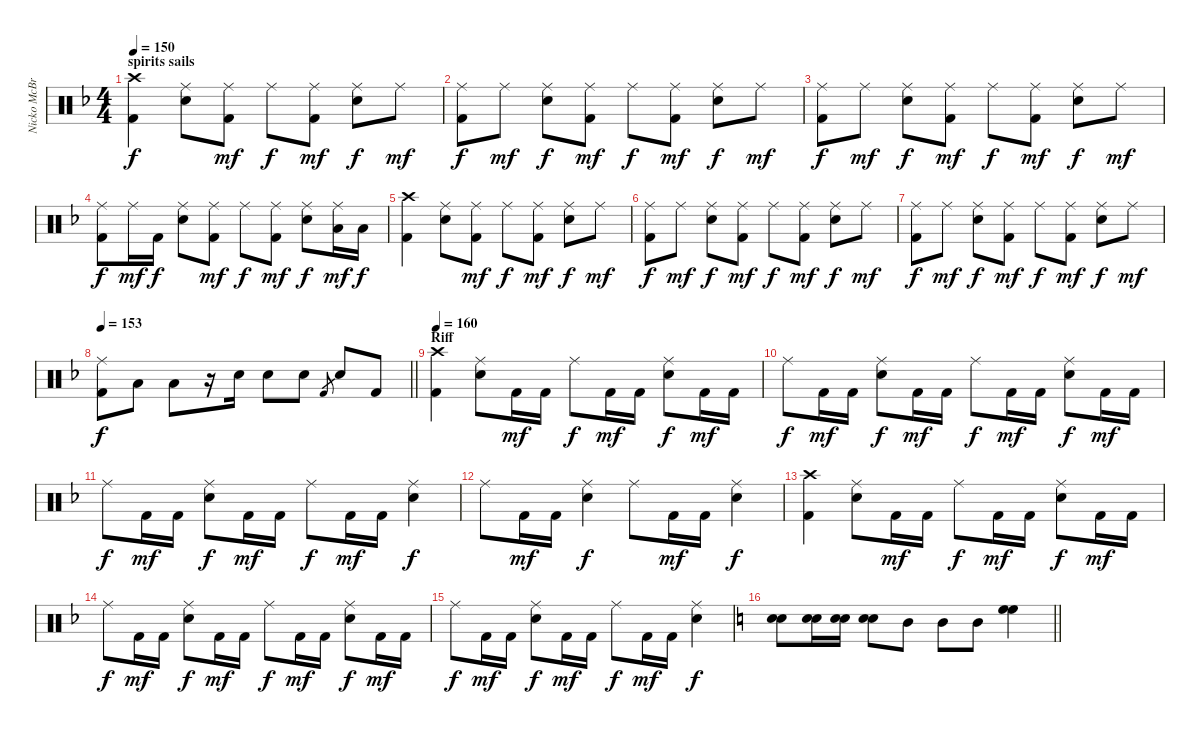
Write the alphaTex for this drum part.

\track ("Nicko McBrain" "Nicko McBr") {instrument percussion}
\staff {score}
\articulation defaults
\ts (4 4)
\section ("" "spirits sails")
\tempo 150
\clef neutral
\ks f
("Crash high (hit)" "Kick (hit) 2").4{dy f} ("Ride (middle)" "Electric Snare (hit)").8 ("Ride (middle)" "Kick (hit) 2").8{dy mf} "Ride (middle)".8{dy f} ("Ride (middle)" "Kick (hit) 2").8{dy mf} ("Ride (middle)" "Electric Snare (hit)").8{dy f} "Ride (middle)".8{dy mf} |
("Ride (middle)" "Kick (hit) 2").8{dy f} "Ride (middle)".8{dy mf} ("Ride (middle)" "Electric Snare (hit)").8{dy f} ("Ride (middle)" "Kick (hit) 2").8{dy mf} "Ride (middle)".8{dy f} ("Ride (middle)" "Kick (hit) 2").8{dy mf} ("Ride (middle)" "Electric Snare (hit)").8{dy f} "Ride (middle)".8{dy mf} |
("Ride (middle)" "Kick (hit) 2").8{dy f} "Ride (middle)".8{dy mf} ("Ride (middle)" "Electric Snare (hit)").8{dy f} ("Ride (middle)" "Kick (hit) 2").8{dy mf} "Ride (middle)".8{dy f} ("Ride (middle)" "Kick (hit) 2").8{dy mf} ("Ride (middle)" "Electric Snare (hit)").8{dy f} "Ride (middle)".8{dy mf} |
("Ride (middle)" "Kick (hit) 2").8{dy f} "Ride (middle)".16{dy mf} "Kick (hit) 2".16{dy f} ("Ride (middle)" "Electric Snare (hit)").8 ("Ride (middle)" "Kick (hit) 2").8{dy mf} "Ride (middle)".8{dy f} ("Ride (middle)" "Kick (hit) 2").8{dy mf} ("Ride (middle)" "Electric Snare (hit)").8{dy f} ("Ride (middle)" "Low Tom (hit)").16{dy mf} "Low Tom (hit)".16{dy f} |
("Crash high (hit)" "Kick (hit) 2").4 ("Ride (middle)" "Electric Snare (hit)").8 ("Ride (middle)" "Kick (hit) 2").8{dy mf} "Ride (middle)".8{dy f} ("Ride (middle)" "Kick (hit) 2").8{dy mf} ("Ride (middle)" "Electric Snare (hit)").8{dy f} "Ride (middle)".8{dy mf} |
("Ride (middle)" "Kick (hit) 2").8{dy f} "Ride (middle)".8{dy mf} ("Ride (middle)" "Electric Snare (hit)").8{dy f} ("Ride (middle)" "Kick (hit) 2").8{dy mf} "Ride (middle)".8{dy f} ("Ride (middle)" "Kick (hit) 2").8{dy mf} ("Ride (middle)" "Electric Snare (hit)").8{dy f} "Ride (middle)".8{dy mf} |
("Ride (middle)" "Kick (hit) 2").8{dy f} "Ride (middle)".8{dy mf} ("Ride (middle)" "Electric Snare (hit)").8{dy f} ("Ride (middle)" "Kick (hit) 2").8{dy mf} "Ride (middle)".8{dy f} ("Ride (middle)" "Kick (hit) 2").8{dy mf} ("Ride (middle)" "Electric Snare (hit)").8{dy f} "Ride (middle)".8{dy mf} |
\tempo 153
\barLineRight lightlight
("Ride (middle)" "Kick (hit) 2").8{dy f} "Low Tom (hit)".8 "Low Tom (hit)".8 r.16 "Electric Snare (hit)".16 "Electric Snare (hit)".8 "Electric Snare (hit)".8 "Kick (hit) 2".8{gr} "Electric Snare (hit)".8 "Kick (hit) 2".8 |
\section ("" "Riff")
\tempo 160
("Crash high (hit)" "Kick (hit) 2").4 ("Ride (middle)" "Electric Snare (hit)").8 "Kick (hit) 2".16{dy mf} "Kick (hit) 2".16 "Ride (middle)".8{dy f} "Kick (hit) 2".16{dy mf} "Kick (hit) 2".16 ("Ride (middle)" "Electric Snare (hit)").8{dy f} "Kick (hit) 2".16{dy mf} "Kick (hit) 2".16 |
"Ride (middle)".8{dy f} "Kick (hit) 2".16{dy mf} "Kick (hit) 2".16 ("Ride (middle)" "Electric Snare (hit)").8{dy f} "Kick (hit) 2".16{dy mf} "Kick (hit) 2".16 "Ride (middle)".8{dy f} "Kick (hit) 2".16{dy mf} "Kick (hit) 2".16 ("Ride (middle)" "Electric Snare (hit)").8{dy f} "Kick (hit) 2".16{dy mf} "Kick (hit) 2".16 |
"Ride (middle)".8{dy f} "Kick (hit) 2".16{dy mf} "Kick (hit) 2".16 ("Ride (middle)" "Electric Snare (hit)").8{dy f} "Kick (hit) 2".16{dy mf} "Kick (hit) 2".16 "Ride (middle)".8{dy f} "Kick (hit) 2".16{dy mf} "Kick (hit) 2".16 ("Ride (middle)" "Electric Snare (hit)").4{dy f} |
"Ride (middle)".8 "Kick (hit) 2".16{dy mf} "Kick (hit) 2".16 ("Ride (middle)" "Electric Snare (hit)").4{dy f} "Ride (middle)".8 "Kick (hit) 2".16{dy mf} "Kick (hit) 2".16 ("Ride (middle)" "Electric Snare (hit)").4{dy f} |
("Crash high (hit)" "Kick (hit) 2").4 ("Ride (middle)" "Electric Snare (hit)").8 "Kick (hit) 2".16{dy mf} "Kick (hit) 2".16 "Ride (middle)".8{dy f} "Kick (hit) 2".16{dy mf} "Kick (hit) 2".16 ("Ride (middle)" "Electric Snare (hit)").8{dy f} "Kick (hit) 2".16{dy mf} "Kick (hit) 2".16 |
"Ride (middle)".8{dy f} "Kick (hit) 2".16{dy mf} "Kick (hit) 2".16 ("Ride (middle)" "Electric Snare (hit)").8{dy f} "Kick (hit) 2".16{dy mf} "Kick (hit) 2".16 "Ride (middle)".8{dy f} "Kick (hit) 2".16{dy mf} "Kick (hit) 2".16 ("Ride (middle)" "Electric Snare (hit)").8{dy f} "Kick (hit) 2".16{dy mf} "Kick (hit) 2".16 |
"Ride (middle)".8{dy f} "Kick (hit) 2".16{dy mf} "Kick (hit) 2".16 ("Ride (middle)" "Electric Snare (hit)").8{dy f} "Kick (hit) 2".16{dy mf} "Kick (hit) 2".16 "Ride (middle)".8{dy f} "Kick (hit) 2".16{dy mf} "Kick (hit) 2".16 ("Ride (middle)" "Electric Snare (hit)").4{dy f} |
\barLineRight lightlight
\ks c
("Snare (hit) 2" "Snare (hit) 2").8 ("Snare (hit) 2" "Snare (hit) 2").16 ("Snare (hit) 2" "Snare (hit) 2").16 ("Snare (hit) 2" "Snare (hit) 2").8 "Mid Tom (hit)".8 "Mid Tom (hit)".8 "Mid Tom (hit)".8 ("High Floor Tom (hit)" "High Floor Tom (hit)").4
